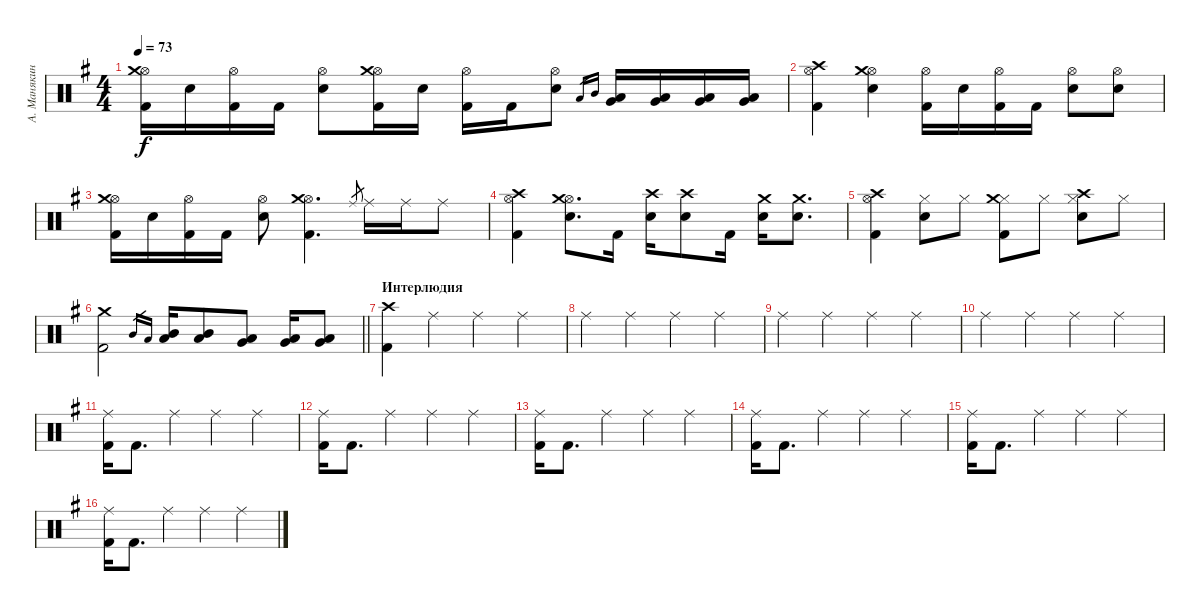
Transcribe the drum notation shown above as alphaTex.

\track ("А. Манякин" "А. Манякин") {instrument percussion}
\staff {score}
\articulation defaults
\ts (4 4)
\tempo 73
\clef neutral
\ks g
("Kick (hit) 2" "Hi-Hat (open)" "Crash medium (hit)").16{dy f} "Electric Snare (hit)".16 ("Kick (hit) 2" "Hi-Hat (open)").16 "Kick (hit) 2".16 ("Electric Snare (hit)" "Hi-Hat (open)").8 ("Kick (hit) 2" "Hi-Hat (open)" "Crash medium (hit)").16 "Electric Snare (hit)".16 ("Kick (hit) 2" "Hi-Hat (open)").16 "Kick (hit) 2".16 ("Electric Snare (hit)" "Hi-Hat (open)").8 "Low Tom (hit)".16{gr} "Mid Tom (hit)".16{gr} ("Very Low Tom (hit)" "Low Tom (hit)").16 ("Very Low Tom (hit)" "Low Tom (hit)").16 ("Low Floor Tom (hit)" "Very Low Tom (hit)").16 ("Low Floor Tom (hit)" "Very Low Tom (hit)").16 |
("Kick (hit) 2" "Hi-Hat (open)" "Crash high (hit)").4 ("Electric Snare (hit)" "Hi-Hat (open)" "Crash medium (hit)").4 ("Kick (hit) 2" "Hi-Hat (open)").16 "Electric Snare (hit)".16 ("Kick (hit) 2" "Hi-Hat (open)").16 "Kick (hit) 2".16 ("Electric Snare (hit)" "Hi-Hat (open)").8 ("Electric Snare (hit)" "Hi-Hat (open)").8 |
("Kick (hit) 2" "Hi-Hat (open)" "Crash medium (hit)").16 "Electric Snare (hit)".16 ("Kick (hit) 2" "Hi-Hat (open)").16 "Kick (hit) 2".16 ("Electric Snare (hit)" "Hi-Hat (open)").8 ("Kick (hit) 2" "Hi-Hat (open)" "Crash medium (hit)").4{d} "Ride (middle)".8{gr} "Ride (middle)".16 "Ride (middle)".16 "Ride (middle)".8 |
("Kick (hit) 2" "Hi-Hat (open)" "Crash high (hit)").4 ("Electric Snare (hit)" "Hi-Hat (open)" "Crash medium (hit)").8{d} "Kick (hit) 2".16 ("Electric Snare (hit)" "Crash high (hit)").16 ("Electric Snare (hit)" "Crash high (hit)").8 "Kick (hit) 2".16 ("Electric Snare (hit)" "Crash medium (hit)").16 ("Electric Snare (hit)" "Crash medium (hit)").8{d} |
("Kick (hit) 2" "Hi-Hat (open)" "Crash high (hit)").4 ("Electric Snare (hit)" "Hi-Hat (closed)").8 "Hi-Hat (closed)".8 ("Kick (hit) 2" "Hi-Hat (closed)" "Crash medium (hit)").8 "Hi-Hat (closed)".8 ("Electric Snare (hit)" "Hi-Hat (closed)" "Crash high (hit)").8 "Hi-Hat (closed)".8 |
\barLineRight lightlight
("Kick (hit) 2" "Crash medium (hit)").2 "Mid Tom (hit)".16{gr} "Low Tom (hit)".16{gr} ("Mid Tom (hit)" "Low Tom (hit)").16 ("Mid Tom (hit)" "Low Tom (hit)").8 ("Low Tom (hit)" "Very Low Tom (hit)").8 ("Very Low Tom (hit)" "Low Floor Tom (hit)").16 ("Very Low Tom (hit)" "Low Floor Tom (hit)").8 |
\section ("" "Интерлюдия")
("Kick (hit) 2" "Crash high (hit)").4 "Ride (middle)".4 "Ride (middle)".4 "Ride (middle)".4 |
"Ride (middle)".4 "Ride (middle)".4 "Ride (middle)".4 "Ride (middle)".4 |
"Ride (middle)".4 "Ride (middle)".4 "Ride (middle)".4 "Ride (middle)".4 |
"Ride (middle)".4 "Ride (middle)".4 "Ride (middle)".4 "Ride (middle)".4 |
("Kick (hit) 2" "Ride (middle)").16 "Kick (hit) 2".8{d} "Ride (middle)".4 "Ride (middle)".4 "Ride (middle)".4 |
("Kick (hit) 2" "Ride (middle)").16 "Kick (hit) 2".8{d} "Ride (middle)".4 "Ride (middle)".4 "Ride (middle)".4 |
("Kick (hit) 2" "Ride (middle)").16 "Kick (hit) 2".8{d} "Ride (middle)".4 "Ride (middle)".4 "Ride (middle)".4 |
("Kick (hit) 2" "Ride (middle)").16 "Kick (hit) 2".8{d} "Ride (middle)".4 "Ride (middle)".4 "Ride (middle)".4 |
("Kick (hit) 2" "Ride (middle)").16 "Kick (hit) 2".8{d} "Ride (middle)".4 "Ride (middle)".4 "Ride (middle)".4 |
("Kick (hit) 2" "Ride (middle)").16 "Kick (hit) 2".8{d} "Ride (middle)".4 "Ride (middle)".4 "Ride (middle)".4
